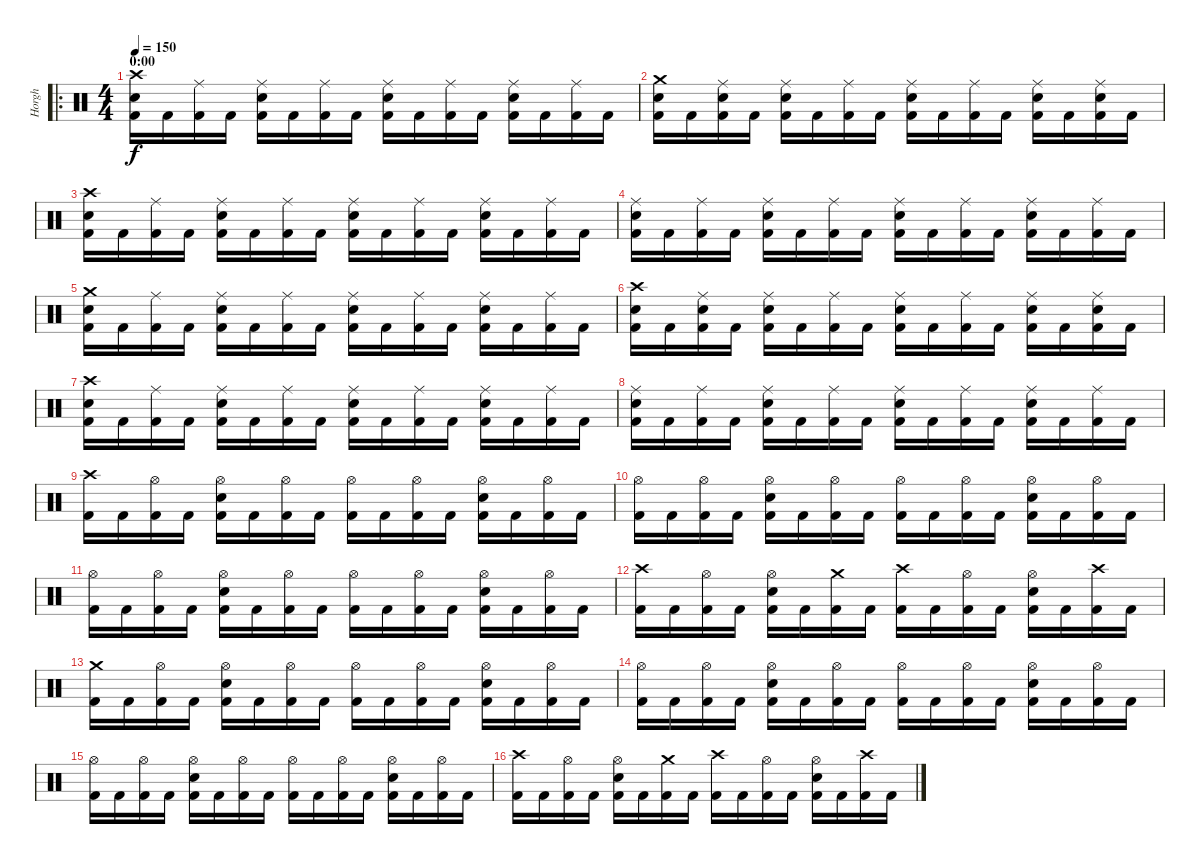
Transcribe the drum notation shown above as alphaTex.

\track ("Horgh" "Horgh") {instrument percussion}
\staff {score}
\articulation defaults
\ro
\ts (4 4)
\section ("" "0:00")
\tempo 150
\clef neutral
\ks c
("Crash high (hit)" "Electric Snare (hit)" "Kick (hit) 2").16{dy f} "Kick (hit) 2".16 ("Ride (middle)" "Kick (hit) 2").16 "Kick (hit) 2".16 ("Ride (middle)" "Electric Snare (hit)" "Kick (hit) 2").16 "Kick (hit) 2".16 ("Ride (middle)" "Kick (hit) 2").16 "Kick (hit) 2".16 ("Ride (middle)" "Electric Snare (hit)" "Kick (hit) 2").16 "Kick (hit) 2".16 ("Ride (middle)" "Kick (hit) 2").16 "Kick (hit) 2".16 ("Ride (middle)" "Electric Snare (hit)" "Kick (hit) 2").16 "Kick (hit) 2".16 ("Ride (middle)" "Kick (hit) 2").16 "Kick (hit) 2".16 |
("Crash medium (hit)" "Electric Snare (hit)" "Kick (hit) 2").16 "Kick (hit) 2".16 ("Ride (middle)" "Electric Snare (hit)" "Kick (hit) 2").16 "Kick (hit) 2".16 ("Ride (middle)" "Electric Snare (hit)" "Kick (hit) 2").16 "Kick (hit) 2".16 ("Ride (middle)" "Kick (hit) 2").16 "Kick (hit) 2".16 ("Ride (middle)" "Electric Snare (hit)" "Kick (hit) 2").16 "Kick (hit) 2".16 ("Ride (middle)" "Kick (hit) 2").16 "Kick (hit) 2".16 ("Ride (middle)" "Electric Snare (hit)" "Kick (hit) 2").16 "Kick (hit) 2".16 ("Ride (middle)" "Electric Snare (hit)" "Kick (hit) 2").16 "Kick (hit) 2".16 |
("Crash high (hit)" "Electric Snare (hit)" "Kick (hit) 2").16 "Kick (hit) 2".16 ("Ride (middle)" "Kick (hit) 2").16 "Kick (hit) 2".16 ("Ride (middle)" "Electric Snare (hit)" "Kick (hit) 2").16 "Kick (hit) 2".16 ("Ride (middle)" "Kick (hit) 2").16 "Kick (hit) 2".16 ("Ride (middle)" "Electric Snare (hit)" "Kick (hit) 2").16 "Kick (hit) 2".16 ("Ride (middle)" "Kick (hit) 2").16 "Kick (hit) 2".16 ("Ride (middle)" "Electric Snare (hit)" "Kick (hit) 2").16 "Kick (hit) 2".16 ("Ride (middle)" "Kick (hit) 2").16 "Kick (hit) 2".16 |
("Ride (middle)" "Electric Snare (hit)" "Kick (hit) 2").16 "Kick (hit) 2".16 ("Ride (middle)" "Kick (hit) 2").16 "Kick (hit) 2".16 ("Ride (middle)" "Electric Snare (hit)" "Kick (hit) 2").16 "Kick (hit) 2".16 ("Ride (middle)" "Kick (hit) 2").16 "Kick (hit) 2".16 ("Ride (middle)" "Electric Snare (hit)" "Kick (hit) 2").16 "Kick (hit) 2".16 ("Ride (middle)" "Kick (hit) 2").16 "Kick (hit) 2".16 ("Ride (middle)" "Electric Snare (hit)" "Kick (hit) 2").16 "Kick (hit) 2".16 ("Ride (middle)" "Kick (hit) 2").16 "Kick (hit) 2".16 |
("Crash medium (hit)" "Electric Snare (hit)" "Kick (hit) 2").16 "Kick (hit) 2".16 ("Ride (middle)" "Kick (hit) 2").16 "Kick (hit) 2".16 ("Ride (middle)" "Electric Snare (hit)" "Kick (hit) 2").16 "Kick (hit) 2".16 ("Ride (middle)" "Kick (hit) 2").16 "Kick (hit) 2".16 ("Ride (middle)" "Electric Snare (hit)" "Kick (hit) 2").16 "Kick (hit) 2".16 ("Ride (middle)" "Kick (hit) 2").16 "Kick (hit) 2".16 ("Ride (middle)" "Electric Snare (hit)" "Kick (hit) 2").16 "Kick (hit) 2".16 ("Ride (middle)" "Kick (hit) 2").16 "Kick (hit) 2".16 |
("Crash high (hit)" "Electric Snare (hit)" "Kick (hit) 2").16 "Kick (hit) 2".16 ("Ride (middle)" "Electric Snare (hit)" "Kick (hit) 2").16 "Kick (hit) 2".16 ("Ride (middle)" "Electric Snare (hit)" "Kick (hit) 2").16 "Kick (hit) 2".16 ("Ride (middle)" "Kick (hit) 2").16 "Kick (hit) 2".16 ("Ride (middle)" "Electric Snare (hit)" "Kick (hit) 2").16 "Kick (hit) 2".16 ("Ride (middle)" "Kick (hit) 2").16 "Kick (hit) 2".16 ("Ride (middle)" "Electric Snare (hit)" "Kick (hit) 2").16 "Kick (hit) 2".16 ("Ride (middle)" "Electric Snare (hit)" "Kick (hit) 2").16 "Kick (hit) 2".16 |
("Crash high (hit)" "Electric Snare (hit)" "Kick (hit) 2").16 "Kick (hit) 2".16 ("Ride (middle)" "Kick (hit) 2").16 "Kick (hit) 2".16 ("Ride (middle)" "Electric Snare (hit)" "Kick (hit) 2").16 "Kick (hit) 2".16 ("Ride (middle)" "Kick (hit) 2").16 "Kick (hit) 2".16 ("Ride (middle)" "Electric Snare (hit)" "Kick (hit) 2").16 "Kick (hit) 2".16 ("Ride (middle)" "Kick (hit) 2").16 "Kick (hit) 2".16 ("Ride (middle)" "Electric Snare (hit)" "Kick (hit) 2").16 "Kick (hit) 2".16 ("Ride (middle)" "Kick (hit) 2").16 "Kick (hit) 2".16 |
("Ride (middle)" "Electric Snare (hit)" "Kick (hit) 2").16 "Kick (hit) 2".16 ("Ride (middle)" "Kick (hit) 2").16 "Kick (hit) 2".16 ("Ride (middle)" "Electric Snare (hit)" "Kick (hit) 2").16 "Kick (hit) 2".16 ("Ride (middle)" "Kick (hit) 2").16 "Kick (hit) 2".16 ("Ride (middle)" "Electric Snare (hit)" "Kick (hit) 2").16 "Kick (hit) 2".16 ("Ride (middle)" "Kick (hit) 2").16 "Kick (hit) 2".16 ("Ride (middle)" "Electric Snare (hit)" "Kick (hit) 2").16 "Kick (hit) 2".16 ("Ride (middle)" "Kick (hit) 2").16 "Kick (hit) 2".16 |
("Crash high (hit)" "Kick (hit) 2").16 "Kick (hit) 2".16 ("Hi-Hat (open)" "Kick (hit) 2").16 "Kick (hit) 2".16 ("Hi-Hat (open)" "Electric Snare (hit)" "Kick (hit) 2").16 "Kick (hit) 2".16 ("Hi-Hat (open)" "Kick (hit) 2").16 "Kick (hit) 2".16 ("Hi-Hat (open)" "Kick (hit) 2").16 "Kick (hit) 2".16 ("Hi-Hat (open)" "Kick (hit) 2").16 "Kick (hit) 2".16 ("Hi-Hat (open)" "Electric Snare (hit)" "Kick (hit) 2").16 "Kick (hit) 2".16 ("Hi-Hat (open)" "Kick (hit) 2").16 "Kick (hit) 2".16 |
("Hi-Hat (open)" "Kick (hit) 2").16 "Kick (hit) 2".16 ("Hi-Hat (open)" "Kick (hit) 2").16 "Kick (hit) 2".16 ("Hi-Hat (open)" "Electric Snare (hit)" "Kick (hit) 2").16 "Kick (hit) 2".16 ("Hi-Hat (open)" "Kick (hit) 2").16 "Kick (hit) 2".16 ("Hi-Hat (open)" "Kick (hit) 2").16 "Kick (hit) 2".16 ("Hi-Hat (open)" "Kick (hit) 2").16 "Kick (hit) 2".16 ("Hi-Hat (open)" "Electric Snare (hit)" "Kick (hit) 2").16 "Kick (hit) 2".16 ("Hi-Hat (open)" "Kick (hit) 2").16 "Kick (hit) 2".16 |
("Hi-Hat (open)" "Kick (hit) 2").16 "Kick (hit) 2".16 ("Hi-Hat (open)" "Kick (hit) 2").16 "Kick (hit) 2".16 ("Hi-Hat (open)" "Electric Snare (hit)" "Kick (hit) 2").16 "Kick (hit) 2".16 ("Hi-Hat (open)" "Kick (hit) 2").16 "Kick (hit) 2".16 ("Hi-Hat (open)" "Kick (hit) 2").16 "Kick (hit) 2".16 ("Hi-Hat (open)" "Kick (hit) 2").16 "Kick (hit) 2".16 ("Hi-Hat (open)" "Electric Snare (hit)" "Kick (hit) 2").16 "Kick (hit) 2".16 ("Hi-Hat (open)" "Kick (hit) 2").16 "Kick (hit) 2".16 |
("Crash high (hit)" "Kick (hit) 2").16 "Kick (hit) 2".16 ("Hi-Hat (open)" "Kick (hit) 2").16 "Kick (hit) 2".16 ("Hi-Hat (open)" "Electric Snare (hit)" "Kick (hit) 2").16 "Kick (hit) 2".16 ("Crash medium (hit)" "Kick (hit) 2").16 "Kick (hit) 2".16 ("Crash high (hit)" "Kick (hit) 2").16 "Kick (hit) 2".16 ("Hi-Hat (open)" "Kick (hit) 2").16 "Kick (hit) 2".16 ("Hi-Hat (open)" "Electric Snare (hit)" "Kick (hit) 2").16 "Kick (hit) 2".16 ("Crash high (hit)" "Kick (hit) 2").16 "Kick (hit) 2".16 |
("Crash medium (hit)" "Kick (hit) 2").16 "Kick (hit) 2".16 ("Hi-Hat (open)" "Kick (hit) 2").16 "Kick (hit) 2".16 ("Hi-Hat (open)" "Electric Snare (hit)" "Kick (hit) 2").16 "Kick (hit) 2".16 ("Hi-Hat (open)" "Kick (hit) 2").16 "Kick (hit) 2".16 ("Hi-Hat (open)" "Kick (hit) 2").16 "Kick (hit) 2".16 ("Hi-Hat (open)" "Kick (hit) 2").16 "Kick (hit) 2".16 ("Hi-Hat (open)" "Electric Snare (hit)" "Kick (hit) 2").16 "Kick (hit) 2".16 ("Hi-Hat (open)" "Kick (hit) 2").16 "Kick (hit) 2".16 |
("Hi-Hat (open)" "Kick (hit) 2").16 "Kick (hit) 2".16 ("Hi-Hat (open)" "Kick (hit) 2").16 "Kick (hit) 2".16 ("Hi-Hat (open)" "Electric Snare (hit)" "Kick (hit) 2").16 "Kick (hit) 2".16 ("Hi-Hat (open)" "Kick (hit) 2").16 "Kick (hit) 2".16 ("Hi-Hat (open)" "Kick (hit) 2").16 "Kick (hit) 2".16 ("Hi-Hat (open)" "Kick (hit) 2").16 "Kick (hit) 2".16 ("Hi-Hat (open)" "Electric Snare (hit)" "Kick (hit) 2").16 "Kick (hit) 2".16 ("Hi-Hat (open)" "Kick (hit) 2").16 "Kick (hit) 2".16 |
("Hi-Hat (open)" "Kick (hit) 2").16 "Kick (hit) 2".16 ("Hi-Hat (open)" "Kick (hit) 2").16 "Kick (hit) 2".16 ("Hi-Hat (open)" "Electric Snare (hit)" "Kick (hit) 2").16 "Kick (hit) 2".16 ("Hi-Hat (open)" "Kick (hit) 2").16 "Kick (hit) 2".16 ("Hi-Hat (open)" "Kick (hit) 2").16 "Kick (hit) 2".16 ("Hi-Hat (open)" "Kick (hit) 2").16 "Kick (hit) 2".16 ("Hi-Hat (open)" "Electric Snare (hit)" "Kick (hit) 2").16 "Kick (hit) 2".16 ("Hi-Hat (open)" "Kick (hit) 2").16 "Kick (hit) 2".16 |
("Crash high (hit)" "Kick (hit) 2").16 "Kick (hit) 2".16 ("Hi-Hat (open)" "Kick (hit) 2").16 "Kick (hit) 2".16 ("Hi-Hat (open)" "Electric Snare (hit)" "Kick (hit) 2").16 "Kick (hit) 2".16 ("Crash medium (hit)" "Kick (hit) 2").16 "Kick (hit) 2".16 ("Crash high (hit)" "Kick (hit) 2").16 "Kick (hit) 2".16 ("Hi-Hat (open)" "Kick (hit) 2").16 "Kick (hit) 2".16 ("Hi-Hat (open)" "Electric Snare (hit)" "Kick (hit) 2").16 "Kick (hit) 2".16 ("Crash high (hit)" "Kick (hit) 2").16 "Kick (hit) 2".16
